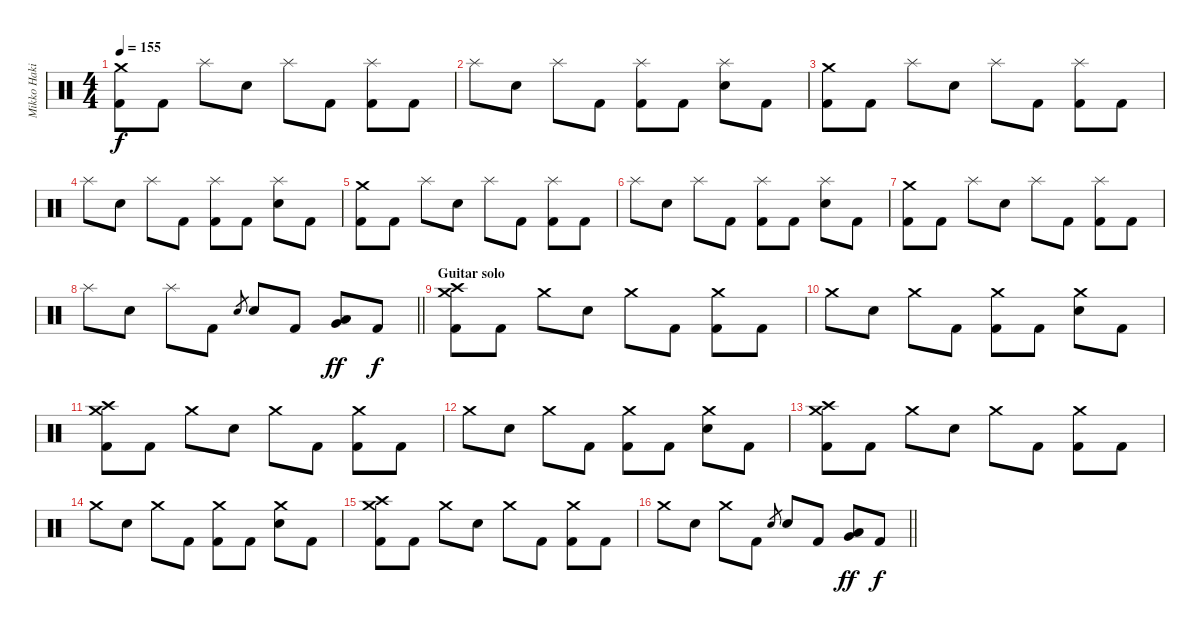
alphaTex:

\track ("Mikko Hakila - Drums" "Mikko Haki") {instrument percussion}
\staff {score}
\articulation defaults
\ts (4 4)
\tempo 155
\clef neutral
\ks c
("Crash medium (hit)" "Kick (hit) 2").8{dy f} "Kick (hit) 2".8 "Splash (hit)".8 "Electric Snare (hit)".8 "Splash (hit)".8 "Kick (hit) 2".8 ("Splash (hit)" "Kick (hit) 2").8 "Kick (hit) 2".8 |
"Splash (hit)".8 "Electric Snare (hit)".8 "Splash (hit)".8 "Kick (hit) 2".8 ("Splash (hit)" "Kick (hit) 2").8 "Kick (hit) 2".8 ("Splash (hit)" "Electric Snare (hit)").8 "Kick (hit) 2".8 |
("Crash medium (hit)" "Kick (hit) 2").8 "Kick (hit) 2".8 "Splash (hit)".8 "Electric Snare (hit)".8 "Splash (hit)".8 "Kick (hit) 2".8 ("Splash (hit)" "Kick (hit) 2").8 "Kick (hit) 2".8 |
"Splash (hit)".8 "Electric Snare (hit)".8 "Splash (hit)".8 "Kick (hit) 2".8 ("Splash (hit)" "Kick (hit) 2").8 "Kick (hit) 2".8 ("Splash (hit)" "Electric Snare (hit)").8 "Kick (hit) 2".8 |
("Crash medium (hit)" "Kick (hit) 2").8 "Kick (hit) 2".8 "Splash (hit)".8 "Electric Snare (hit)".8 "Splash (hit)".8 "Kick (hit) 2".8 ("Splash (hit)" "Kick (hit) 2").8 "Kick (hit) 2".8 |
"Splash (hit)".8 "Electric Snare (hit)".8 "Splash (hit)".8 "Kick (hit) 2".8 ("Splash (hit)" "Kick (hit) 2").8 "Kick (hit) 2".8 ("Splash (hit)" "Electric Snare (hit)").8 "Kick (hit) 2".8 |
("Crash medium (hit)" "Kick (hit) 2").8 "Kick (hit) 2".8 "Splash (hit)".8 "Electric Snare (hit)".8 "Splash (hit)".8 "Kick (hit) 2".8 ("Splash (hit)" "Kick (hit) 2").8 "Kick (hit) 2".8 |
\barLineRight lightlight "Splash (hit)".8 "Electric Snare (hit)".8 "Splash (hit)".8 "Kick (hit) 2".8 "Electric Snare (hit)".8{gr} "Electric Snare (hit)".8 "Kick (hit) 2".8
("Low Tom (hit)" "Very Low Tom (hit)").8{dy ff} "Kick (hit) 2".8{dy f} |
\section ("" "Guitar solo")
("Crash medium (hit)" "Crash high (hit)" "Kick (hit) 2").8 "Kick (hit) 2".8 "Crash medium (hit)".8 "Electric Snare (hit)".8 "Crash medium (hit)".8 "Kick (hit) 2".8 ("Crash medium (hit)" "Kick (hit) 2").8 "Kick (hit) 2".8 |
"Crash medium (hit)".8 "Electric Snare (hit)".8 "Crash medium (hit)".8 "Kick (hit) 2".8 ("Crash medium (hit)" "Kick (hit) 2").8 "Kick (hit) 2".8 ("Crash medium (hit)" "Electric Snare (hit)").8 "Kick (hit) 2".8 |
("Crash medium (hit)" "Crash high (hit)" "Kick (hit) 2").8 "Kick (hit) 2".8 "Crash medium (hit)".8 "Electric Snare (hit)".8 "Crash medium (hit)".8 "Kick (hit) 2".8 ("Crash medium (hit)" "Kick (hit) 2").8 "Kick (hit) 2".8 |
"Crash medium (hit)".8 "Electric Snare (hit)".8 "Crash medium (hit)".8 "Kick (hit) 2".8 ("Crash medium (hit)" "Kick (hit) 2").8 "Kick (hit) 2".8 ("Crash medium (hit)" "Electric Snare (hit)").8 "Kick (hit) 2".8 |
("Crash medium (hit)" "Crash high (hit)" "Kick (hit) 2").8 "Kick (hit) 2".8 "Crash medium (hit)".8 "Electric Snare (hit)".8 "Crash medium (hit)".8 "Kick (hit) 2".8 ("Crash medium (hit)" "Kick (hit) 2").8 "Kick (hit) 2".8 |
"Crash medium (hit)".8 "Electric Snare (hit)".8 "Crash medium (hit)".8 "Kick (hit) 2".8 ("Crash medium (hit)" "Kick (hit) 2").8 "Kick (hit) 2".8 ("Crash medium (hit)" "Electric Snare (hit)").8 "Kick (hit) 2".8 |
("Crash medium (hit)" "Crash high (hit)" "Kick (hit) 2").8 "Kick (hit) 2".8 "Crash medium (hit)".8 "Electric Snare (hit)".8 "Crash medium (hit)".8 "Kick (hit) 2".8 ("Crash medium (hit)" "Kick (hit) 2").8 "Kick (hit) 2".8 |
\barLineRight lightlight "Crash medium (hit)".8 "Electric Snare (hit)".8 "Crash medium (hit)".8 "Kick (hit) 2".8 "Electric Snare (hit)".8{gr} "Electric Snare (hit)".8 "Kick (hit) 2".8
("Low Tom (hit)" "Very Low Tom (hit)").8{dy ff} "Kick (hit) 2".8{dy f}
